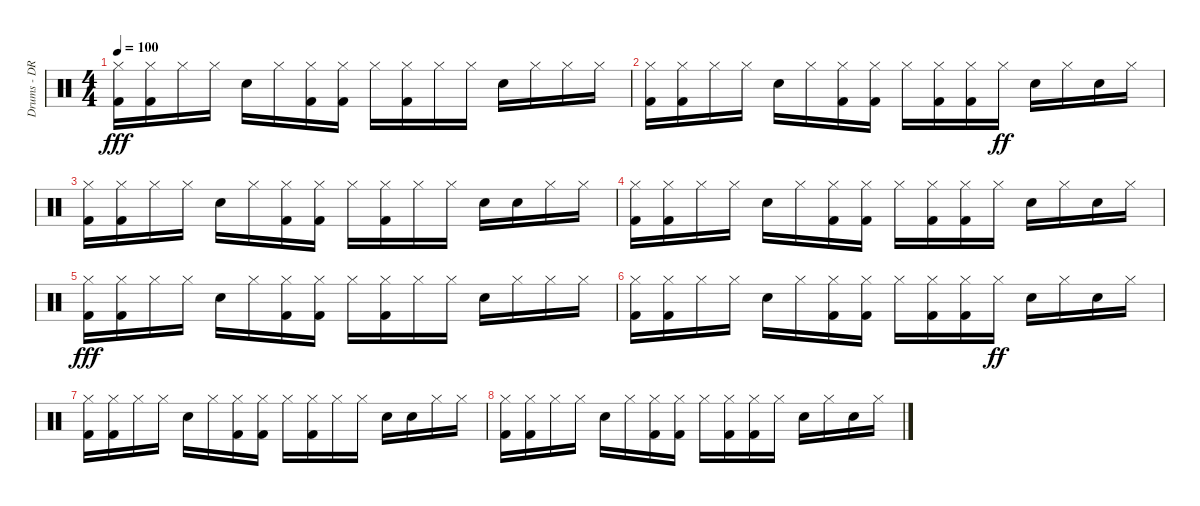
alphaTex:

\track ("Drums - DR-660 Standard" "Drums - DR") {instrument percussion}
\staff {score}
\articulation defaults
\ts (4 4)
\tempo 100
\clef neutral
\ks c
("Kick (hit) 2" "Hi-Hat (closed)").16{dy fff} ("Kick (hit) 2" "Hi-Hat (closed)").16 "Hi-Hat (closed)".16 "Hi-Hat (closed)".16 "Snare (hit) 2".16 "Hi-Hat (closed)".16 ("Kick (hit) 2" "Hi-Hat (closed)").16 ("Kick (hit) 2" "Hi-Hat (closed)").16 "Hi-Hat (closed)".16 ("Kick (hit) 2" "Hi-Hat (closed)").16 "Hi-Hat (closed)".16 "Hi-Hat (closed)".16 "Snare (hit) 2".16 "Hi-Hat (closed)".16 "Hi-Hat (closed)".16 "Hi-Hat (closed)".16 |
("Kick (hit) 2" "Hi-Hat (closed)").16 ("Kick (hit) 2" "Hi-Hat (closed)").16 "Hi-Hat (closed)".16 "Hi-Hat (closed)".16 "Snare (hit) 2".16 "Hi-Hat (closed)".16 ("Kick (hit) 2" "Hi-Hat (closed)").16 ("Kick (hit) 2" "Hi-Hat (closed)").16 "Hi-Hat (closed)".16 ("Kick (hit) 2" "Hi-Hat (closed)").16 ("Kick (hit) 2" "Hi-Hat (closed)").16 "Hi-Hat (closed)".16{dy ff} "Snare (hit) 2".16 "Hi-Hat (closed)".16 "Snare (hit) 2".16 "Hi-Hat (closed)".16 |
("Kick (hit) 2" "Hi-Hat (closed)").16 ("Kick (hit) 2" "Hi-Hat (closed)").16 "Hi-Hat (closed)".16 "Hi-Hat (closed)".16 "Snare (hit) 2".16 "Hi-Hat (closed)".16 ("Kick (hit) 2" "Hi-Hat (closed)").16 ("Kick (hit) 2" "Hi-Hat (closed)").16 "Hi-Hat (closed)".16 ("Kick (hit) 2" "Hi-Hat (closed)").16 "Hi-Hat (closed)".16 "Hi-Hat (closed)".16 "Snare (hit) 2".16 "Snare (hit) 2".16 "Hi-Hat (closed)".16 "Hi-Hat (closed)".16 |
("Kick (hit) 2" "Hi-Hat (closed)").16 ("Kick (hit) 2" "Hi-Hat (closed)").16 "Hi-Hat (closed)".16 "Hi-Hat (closed)".16 "Snare (hit) 2".16 "Hi-Hat (closed)".16 ("Kick (hit) 2" "Hi-Hat (closed)").16 ("Kick (hit) 2" "Hi-Hat (closed)").16 "Hi-Hat (closed)".16 ("Kick (hit) 2" "Hi-Hat (closed)").16 ("Kick (hit) 2" "Hi-Hat (closed)").16 "Hi-Hat (closed)".16 "Snare (hit) 2".16 "Hi-Hat (closed)".16 "Snare (hit) 2".16 "Hi-Hat (closed)".16 |
("Kick (hit) 2" "Hi-Hat (closed)").16{dy fff} ("Kick (hit) 2" "Hi-Hat (closed)").16 "Hi-Hat (closed)".16 "Hi-Hat (closed)".16 "Snare (hit) 2".16 "Hi-Hat (closed)".16 ("Kick (hit) 2" "Hi-Hat (closed)").16 ("Kick (hit) 2" "Hi-Hat (closed)").16 "Hi-Hat (closed)".16 ("Kick (hit) 2" "Hi-Hat (closed)").16 "Hi-Hat (closed)".16 "Hi-Hat (closed)".16 "Snare (hit) 2".16 "Hi-Hat (closed)".16 "Hi-Hat (closed)".16 "Hi-Hat (closed)".16 |
("Kick (hit) 2" "Hi-Hat (closed)").16 ("Kick (hit) 2" "Hi-Hat (closed)").16 "Hi-Hat (closed)".16 "Hi-Hat (closed)".16 "Snare (hit) 2".16 "Hi-Hat (closed)".16 ("Kick (hit) 2" "Hi-Hat (closed)").16 ("Kick (hit) 2" "Hi-Hat (closed)").16 "Hi-Hat (closed)".16 ("Kick (hit) 2" "Hi-Hat (closed)").16 ("Kick (hit) 2" "Hi-Hat (closed)").16 "Hi-Hat (closed)".16{dy ff} "Snare (hit) 2".16 "Hi-Hat (closed)".16 "Snare (hit) 2".16 "Hi-Hat (closed)".16 |
("Kick (hit) 2" "Hi-Hat (closed)").16 ("Kick (hit) 2" "Hi-Hat (closed)").16 "Hi-Hat (closed)".16 "Hi-Hat (closed)".16 "Snare (hit) 2".16 "Hi-Hat (closed)".16 ("Kick (hit) 2" "Hi-Hat (closed)").16 ("Kick (hit) 2" "Hi-Hat (closed)").16 "Hi-Hat (closed)".16 ("Kick (hit) 2" "Hi-Hat (closed)").16 "Hi-Hat (closed)".16 "Hi-Hat (closed)".16 "Snare (hit) 2".16 "Snare (hit) 2".16 "Hi-Hat (closed)".16 "Hi-Hat (closed)".16 |
("Kick (hit) 2" "Hi-Hat (closed)").16 ("Kick (hit) 2" "Hi-Hat (closed)").16 "Hi-Hat (closed)".16 "Hi-Hat (closed)".16 "Snare (hit) 2".16 "Hi-Hat (closed)".16 ("Kick (hit) 2" "Hi-Hat (closed)").16 ("Kick (hit) 2" "Hi-Hat (closed)").16 "Hi-Hat (closed)".16 ("Kick (hit) 2" "Hi-Hat (closed)").16 ("Kick (hit) 2" "Hi-Hat (closed)").16 "Hi-Hat (closed)".16 "Snare (hit) 2".16 "Hi-Hat (closed)".16 "Snare (hit) 2".16 "Hi-Hat (closed)".16
